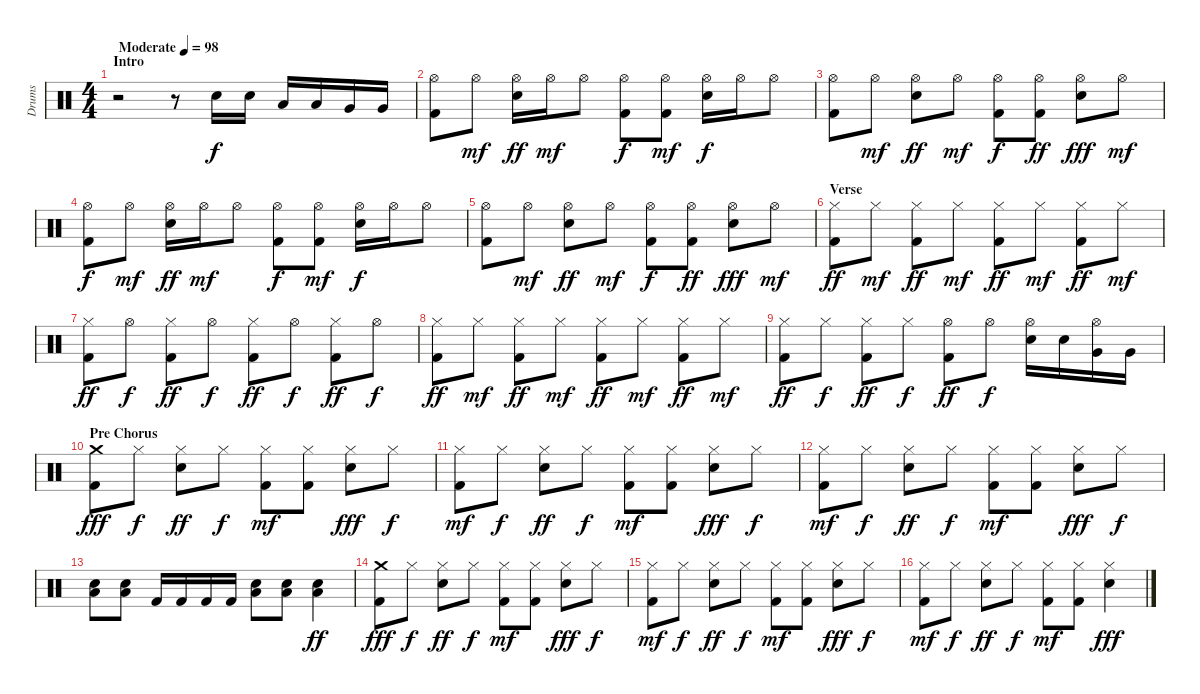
\track ("Drums" "Drums") {instrument percussion}
\staff {score}
\articulation defaults
\ts (4 4)
\section ("" "Intro")
\tempo (98 "Moderate")
\clef neutral
\ks c
r.2{dy f} r.8 "Electric Snare (hit)".16 "Electric Snare (hit)".16 "Low Tom (hit)".16 "Low Tom (hit)".16 "Very Low Tom (hit)".16 "Very Low Tom (hit)".16 |
("Hi-Hat (open)" "Kick (hit) 2").8 "Hi-Hat (open)".8{dy mf} ("Hi-Hat (open)" "Electric Snare (hit)").16{dy ff} "Hi-Hat (open)".16{dy mf} "Hi-Hat (open)".8 ("Hi-Hat (open)" "Kick (hit) 2").8{dy f} ("Hi-Hat (open)" "Kick (hit) 2").8{dy mf} ("Hi-Hat (open)" "Electric Snare (hit)").16{dy f} "Hi-Hat (open)".16 "Hi-Hat (open)".8 |
("Hi-Hat (open)" "Kick (hit) 2").8 "Hi-Hat (open)".8{dy mf} ("Hi-Hat (open)" "Electric Snare (hit)").8{dy ff} "Hi-Hat (open)".8{dy mf} ("Hi-Hat (open)" "Kick (hit) 2").8{dy f} ("Hi-Hat (open)" "Kick (hit) 2").8{dy ff} ("Hi-Hat (open)" "Electric Snare (hit)").8{dy fff} "Hi-Hat (open)".8{dy mf} |
("Hi-Hat (open)" "Kick (hit) 2").8{dy f} "Hi-Hat (open)".8{dy mf} ("Hi-Hat (open)" "Electric Snare (hit)").16{dy ff} "Hi-Hat (open)".16{dy mf} "Hi-Hat (open)".8 ("Hi-Hat (open)" "Kick (hit) 2").8{dy f} ("Hi-Hat (open)" "Kick (hit) 2").8{dy mf} ("Hi-Hat (open)" "Electric Snare (hit)").16{dy f} "Hi-Hat (open)".16 "Hi-Hat (open)".8 |
("Hi-Hat (open)" "Kick (hit) 2").8 "Hi-Hat (open)".8{dy mf} ("Hi-Hat (open)" "Electric Snare (hit)").8{dy ff} "Hi-Hat (open)".8{dy mf} ("Hi-Hat (open)" "Kick (hit) 2").8{dy f} ("Hi-Hat (open)" "Kick (hit) 2").8{dy ff} ("Hi-Hat (open)" "Electric Snare (hit)").8{dy fff} "Hi-Hat (open)".8{dy mf} |
\section ("" "Verse")
("Hi-Hat (closed)" "Kick (hit) 2").8{dy ff} "Hi-Hat (closed)".8{dy mf} ("Hi-Hat (closed)" "Kick (hit) 2").8{dy ff} "Hi-Hat (closed)".8{dy mf} ("Hi-Hat (closed)" "Kick (hit) 2").8{dy ff} "Hi-Hat (closed)".8{dy mf} ("Hi-Hat (closed)" "Kick (hit) 2").8{dy ff} "Hi-Hat (closed)".8{dy mf} |
("Hi-Hat (closed)" "Kick (hit) 2").8{dy ff} "Hi-Hat (open)".8{dy f} ("Hi-Hat (closed)" "Kick (hit) 2").8{dy ff} "Hi-Hat (open)".8{dy f} ("Hi-Hat (closed)" "Kick (hit) 2").8{dy ff} "Hi-Hat (open)".8{dy f} ("Hi-Hat (closed)" "Kick (hit) 2").8{dy ff} "Hi-Hat (open)".8{dy f} |
("Hi-Hat (closed)" "Kick (hit) 2").8{dy ff} "Hi-Hat (closed)".8{dy mf} ("Hi-Hat (closed)" "Kick (hit) 2").8{dy ff} "Hi-Hat (closed)".8{dy mf} ("Hi-Hat (closed)" "Kick (hit) 2").8{dy ff} "Hi-Hat (closed)".8{dy mf} ("Hi-Hat (closed)" "Kick (hit) 2").8{dy ff} "Hi-Hat (closed)".8{dy mf} |
("Hi-Hat (closed)" "Kick (hit) 2").8{dy ff} "Hi-Hat (closed)".8{dy f} ("Hi-Hat (closed)" "Kick (hit) 2").8{dy ff} "Hi-Hat (closed)".8{dy f} ("Hi-Hat (open)" "Kick (hit) 2").8{dy ff} "Hi-Hat (open)".8{dy f} ("Hi-Hat (open)" "Electric Snare (hit)").16 "Electric Snare (hit)".16 ("Hi-Hat (open)" "Very Low Tom (hit)").16 "Very Low Tom (hit)".16 |
\section ("" "Pre Chorus")
("Crash medium (hit)" "Kick (hit) 2").8{dy fff} "Hi-Hat (closed)".8{dy f} ("Hi-Hat (closed)" "Electric Snare (hit)").8{dy ff} "Hi-Hat (closed)".8{dy f} ("Hi-Hat (closed)" "Kick (hit) 2").8{dy mf} ("Hi-Hat (closed)" "Kick (hit) 2").8 ("Hi-Hat (closed)" "Electric Snare (hit)").8{dy fff} "Hi-Hat (closed)".8{dy f} |
("Hi-Hat (closed)" "Kick (hit) 2").8{dy mf} "Hi-Hat (closed)".8{dy f} ("Hi-Hat (closed)" "Electric Snare (hit)").8{dy ff} "Hi-Hat (closed)".8{dy f} ("Hi-Hat (closed)" "Kick (hit) 2").8{dy mf} ("Hi-Hat (closed)" "Kick (hit) 2").8 ("Hi-Hat (closed)" "Electric Snare (hit)").8{dy fff} "Hi-Hat (closed)".8{dy f} |
("Hi-Hat (closed)" "Kick (hit) 2").8{dy mf} "Hi-Hat (closed)".8{dy f} ("Hi-Hat (closed)" "Electric Snare (hit)").8{dy ff} "Hi-Hat (closed)".8{dy f} ("Hi-Hat (closed)" "Kick (hit) 2").8{dy mf} ("Hi-Hat (closed)" "Kick (hit) 2").8 ("Hi-Hat (closed)" "Electric Snare (hit)").8{dy fff} "Hi-Hat (closed)".8{dy f} |
("Electric Snare (hit)" "Low Floor Tom (hit)").8 ("Electric Snare (hit)" "Low Floor Tom (hit)").8 "Kick (hit) 2".16 "Kick (hit) 2".16 "Kick (hit) 2".16 "Kick (hit) 2".16 ("Electric Snare (hit)" "Low Floor Tom (hit)").8 ("Electric Snare (hit)" "Low Floor Tom (hit)").8 ("Electric Snare (hit)" "Low Floor Tom (hit)").4{dy ff} |
("Crash medium (hit)" "Kick (hit) 2").8{dy fff} "Hi-Hat (closed)".8{dy f} ("Hi-Hat (closed)" "Electric Snare (hit)").8{dy ff} "Hi-Hat (closed)".8{dy f} ("Hi-Hat (closed)" "Kick (hit) 2").8{dy mf} ("Hi-Hat (closed)" "Kick (hit) 2").8 ("Hi-Hat (closed)" "Electric Snare (hit)").8{dy fff} "Hi-Hat (closed)".8{dy f} |
("Hi-Hat (closed)" "Kick (hit) 2").8{dy mf} "Hi-Hat (closed)".8{dy f} ("Hi-Hat (closed)" "Electric Snare (hit)").8{dy ff} "Hi-Hat (closed)".8{dy f} ("Hi-Hat (closed)" "Kick (hit) 2").8{dy mf} ("Hi-Hat (closed)" "Kick (hit) 2").8 ("Hi-Hat (closed)" "Electric Snare (hit)").8{dy fff} "Hi-Hat (closed)".8{dy f} |
("Hi-Hat (closed)" "Kick (hit) 2").8{dy mf} "Hi-Hat (closed)".8{dy f} ("Hi-Hat (closed)" "Electric Snare (hit)").8{dy ff} "Hi-Hat (closed)".8{dy f} ("Hi-Hat (closed)" "Kick (hit) 2").8{dy mf} ("Hi-Hat (closed)" "Kick (hit) 2").8 ("Hi-Hat (closed)" "Electric Snare (hit)").4{dy fff}
